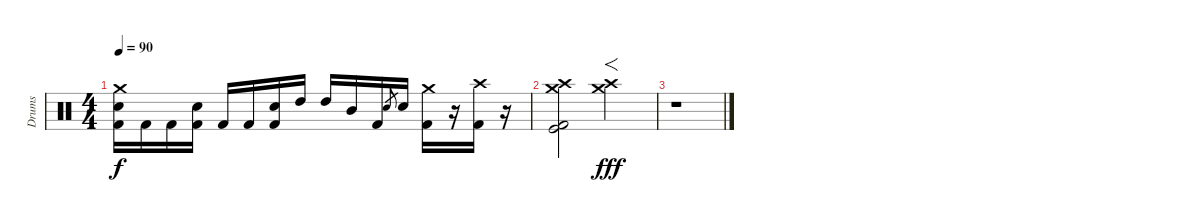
\track ("Drums" "Drums") {instrument percussion}
\staff {score}
\articulation defaults
\ts (4 4)
\tempo 90
\clef neutral
\ks c
("Crash medium (hit)" "Electric Snare (hit)" "Kick (hit) 2").16{dy f} "Kick (hit) 2".16 "Kick (hit) 2".16 ("Electric Snare (hit)" "Kick (hit) 2").16 "Kick (hit) 2".16 "Kick (hit) 2".16 ("Electric Snare (hit)" "Kick (hit) 2").16 "High Tom (hit)".16 "High Tom (hit)".16 "Mid Tom (hit)".16 "Kick (hit) 2".16 "Electric Snare (hit)".8{gr} "Electric Snare (hit)".16 ("Crash medium (hit)" "Kick (hit) 2").16 r.16 ("Crash high (hit)" "Kick (hit) 2").16 r.16 |
("Crash medium (hit)" "Crash high (hit)" "Kick (hit)" "Kick (hit) 2").2 ("Crash medium (hit)" "Crash high (hit)").2{f dy fff} |
r.1
